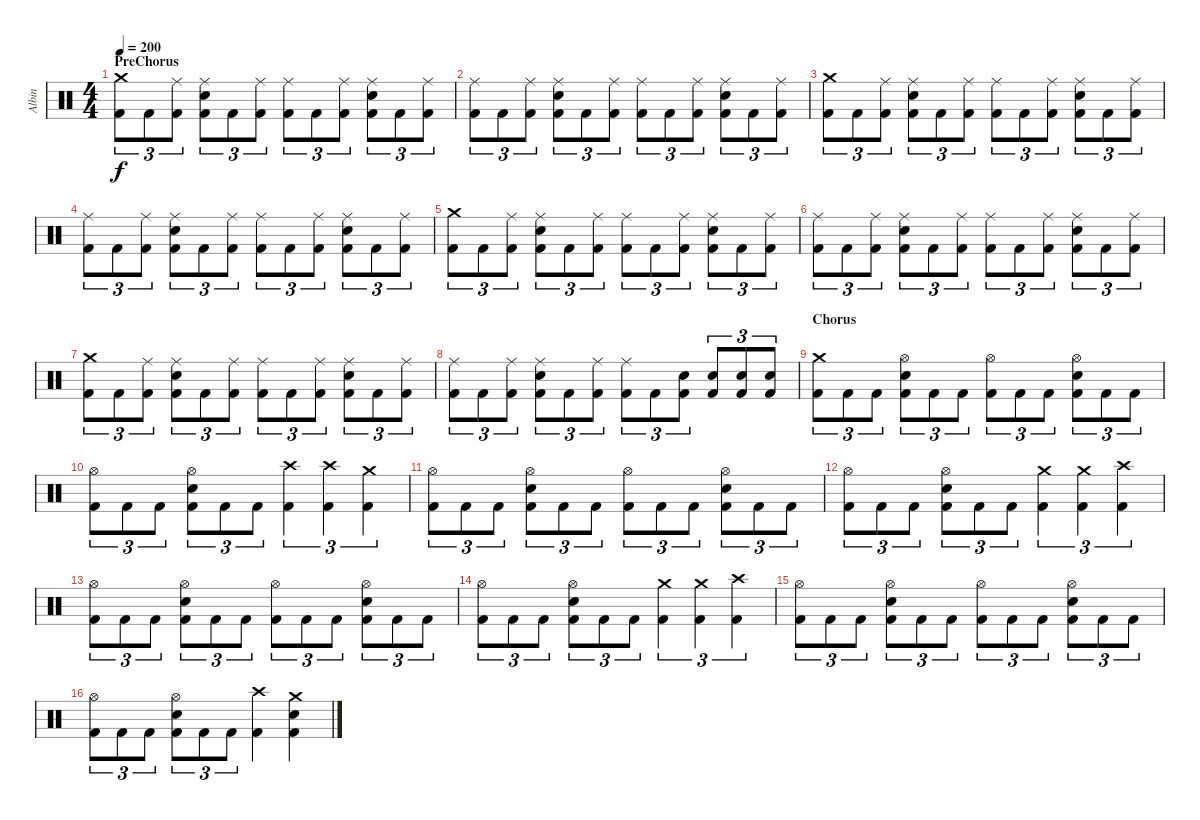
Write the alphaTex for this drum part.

\track ("Albin" "Albin") {instrument percussion}
\staff {score}
\articulation defaults
\ts (4 4)
\section ("" "PreChorus")
\tempo 200
\clef neutral
\ks c
("Crash medium (hit)" "Kick (hit) 2").8{tu (3 2) dy f} "Kick (hit) 2".8{tu (3 2)} ("Ride (middle)" "Kick (hit) 2").8{tu (3 2)} ("Ride (middle)" "Electric Snare (hit)" "Kick (hit) 2").8{tu (3 2)} "Kick (hit) 2".8{tu (3 2)} ("Ride (middle)" "Kick (hit) 2").8{tu (3 2)} ("Ride (middle)" "Kick (hit) 2").8{tu (3 2)} "Kick (hit) 2".8{tu (3 2)} ("Ride (middle)" "Kick (hit) 2").8{tu (3 2)} ("Ride (middle)" "Electric Snare (hit)" "Kick (hit) 2").8{tu (3 2)} "Kick (hit) 2".8{tu (3 2)} ("Ride (middle)" "Kick (hit) 2").8{tu (3 2)} |
("Ride (middle)" "Kick (hit) 2").8{tu (3 2)} "Kick (hit) 2".8{tu (3 2)} ("Ride (middle)" "Kick (hit) 2").8{tu (3 2)} ("Ride (middle)" "Electric Snare (hit)" "Kick (hit) 2").8{tu (3 2)} "Kick (hit) 2".8{tu (3 2)} ("Ride (middle)" "Kick (hit) 2").8{tu (3 2)} ("Ride (middle)" "Kick (hit) 2").8{tu (3 2)} "Kick (hit) 2".8{tu (3 2)} ("Ride (middle)" "Kick (hit) 2").8{tu (3 2)} ("Ride (middle)" "Electric Snare (hit)" "Kick (hit) 2").8{tu (3 2)} "Kick (hit) 2".8{tu (3 2)} ("Ride (middle)" "Kick (hit) 2").8{tu (3 2)} |
("Crash medium (hit)" "Kick (hit) 2").8{tu (3 2)} "Kick (hit) 2".8{tu (3 2)} ("Ride (middle)" "Kick (hit) 2").8{tu (3 2)} ("Ride (middle)" "Electric Snare (hit)" "Kick (hit) 2").8{tu (3 2)} "Kick (hit) 2".8{tu (3 2)} ("Ride (middle)" "Kick (hit) 2").8{tu (3 2)} ("Ride (middle)" "Kick (hit) 2").8{tu (3 2)} "Kick (hit) 2".8{tu (3 2)} ("Ride (middle)" "Kick (hit) 2").8{tu (3 2)} ("Ride (middle)" "Electric Snare (hit)" "Kick (hit) 2").8{tu (3 2)} "Kick (hit) 2".8{tu (3 2)} ("Ride (middle)" "Kick (hit) 2").8{tu (3 2)} |
("Ride (middle)" "Kick (hit) 2").8{tu (3 2)} "Kick (hit) 2".8{tu (3 2)} ("Ride (middle)" "Kick (hit) 2").8{tu (3 2)} ("Ride (middle)" "Electric Snare (hit)" "Kick (hit) 2").8{tu (3 2)} "Kick (hit) 2".8{tu (3 2)} ("Ride (middle)" "Kick (hit) 2").8{tu (3 2)} ("Ride (middle)" "Kick (hit) 2").8{tu (3 2)} "Kick (hit) 2".8{tu (3 2)} ("Ride (middle)" "Kick (hit) 2").8{tu (3 2)} ("Ride (middle)" "Electric Snare (hit)" "Kick (hit) 2").8{tu (3 2)} "Kick (hit) 2".8{tu (3 2)} ("Ride (middle)" "Kick (hit) 2").8{tu (3 2)} |
("Crash medium (hit)" "Kick (hit) 2").8{tu (3 2)} "Kick (hit) 2".8{tu (3 2)} ("Ride (middle)" "Kick (hit) 2").8{tu (3 2)} ("Ride (middle)" "Electric Snare (hit)" "Kick (hit) 2").8{tu (3 2)} "Kick (hit) 2".8{tu (3 2)} ("Ride (middle)" "Kick (hit) 2").8{tu (3 2)} ("Ride (middle)" "Kick (hit) 2").8{tu (3 2)} "Kick (hit) 2".8{tu (3 2)} ("Ride (middle)" "Kick (hit) 2").8{tu (3 2)} ("Ride (middle)" "Electric Snare (hit)" "Kick (hit) 2").8{tu (3 2)} "Kick (hit) 2".8{tu (3 2)} ("Ride (middle)" "Kick (hit) 2").8{tu (3 2)} |
("Ride (middle)" "Kick (hit) 2").8{tu (3 2)} "Kick (hit) 2".8{tu (3 2)} ("Ride (middle)" "Kick (hit) 2").8{tu (3 2)} ("Ride (middle)" "Electric Snare (hit)" "Kick (hit) 2").8{tu (3 2)} "Kick (hit) 2".8{tu (3 2)} ("Ride (middle)" "Kick (hit) 2").8{tu (3 2)} ("Ride (middle)" "Kick (hit) 2").8{tu (3 2)} "Kick (hit) 2".8{tu (3 2)} ("Ride (middle)" "Kick (hit) 2").8{tu (3 2)} ("Ride (middle)" "Electric Snare (hit)" "Kick (hit) 2").8{tu (3 2)} "Kick (hit) 2".8{tu (3 2)} ("Ride (middle)" "Kick (hit) 2").8{tu (3 2)} |
("Crash medium (hit)" "Kick (hit) 2").8{tu (3 2)} "Kick (hit) 2".8{tu (3 2)} ("Ride (middle)" "Kick (hit) 2").8{tu (3 2)} ("Ride (middle)" "Electric Snare (hit)" "Kick (hit) 2").8{tu (3 2)} "Kick (hit) 2".8{tu (3 2)} ("Ride (middle)" "Kick (hit) 2").8{tu (3 2)} ("Ride (middle)" "Kick (hit) 2").8{tu (3 2)} "Kick (hit) 2".8{tu (3 2)} ("Ride (middle)" "Kick (hit) 2").8{tu (3 2)} ("Ride (middle)" "Electric Snare (hit)" "Kick (hit) 2").8{tu (3 2)} "Kick (hit) 2".8{tu (3 2)} ("Ride (middle)" "Kick (hit) 2").8{tu (3 2)} |
("Ride (middle)" "Kick (hit) 2").8{tu (3 2)} "Kick (hit) 2".8{tu (3 2)} ("Ride (middle)" "Kick (hit) 2").8{tu (3 2)} ("Ride (middle)" "Electric Snare (hit)" "Kick (hit) 2").8{tu (3 2)} "Kick (hit) 2".8{tu (3 2)} ("Ride (middle)" "Kick (hit) 2").8{tu (3 2)} ("Ride (middle)" "Kick (hit) 2").8{tu (3 2)} "Kick (hit) 2".8{tu (3 2)} ("Electric Snare (hit)" "Kick (hit) 2").8{tu (3 2)} ("Electric Snare (hit)" "Kick (hit) 2").8{tu (3 2)} ("Electric Snare (hit)" "Kick (hit) 2").8{tu (3 2)} ("Electric Snare (hit)" "Kick (hit) 2").8{tu (3 2)} |
\section ("" "Chorus")
("Crash medium (hit)" "Kick (hit) 2").8{tu (3 2)} "Kick (hit) 2".8{tu (3 2)} "Kick (hit) 2".8{tu (3 2)} ("Hi-Hat (open)" "Electric Snare (hit)" "Kick (hit) 2").8{tu (3 2)} "Kick (hit) 2".8{tu (3 2)} "Kick (hit) 2".8{tu (3 2)} ("Hi-Hat (open)" "Kick (hit) 2").8{tu (3 2)} "Kick (hit) 2".8{tu (3 2)} "Kick (hit) 2".8{tu (3 2)} ("Hi-Hat (open)" "Electric Snare (hit)" "Kick (hit) 2").8{tu (3 2)} "Kick (hit) 2".8{tu (3 2)} "Kick (hit) 2".8{tu (3 2)} |
("Hi-Hat (open)" "Kick (hit) 2").8{tu (3 2)} "Kick (hit) 2".8{tu (3 2)} "Kick (hit) 2".8{tu (3 2)} ("Hi-Hat (open)" "Electric Snare (hit)" "Kick (hit) 2").8{tu (3 2)} "Kick (hit) 2".8{tu (3 2)} "Kick (hit) 2".8{tu (3 2)} ("Crash high (hit)" "Kick (hit) 2").4{tu (3 2)} ("Crash high (hit)" "Kick (hit) 2").4{tu (3 2)} ("Crash medium (hit)" "Kick (hit) 2").4{tu (3 2)} |
("Hi-Hat (open)" "Kick (hit) 2").8{tu (3 2)} "Kick (hit) 2".8{tu (3 2)} "Kick (hit) 2".8{tu (3 2)} ("Hi-Hat (open)" "Electric Snare (hit)" "Kick (hit) 2").8{tu (3 2)} "Kick (hit) 2".8{tu (3 2)} "Kick (hit) 2".8{tu (3 2)} ("Hi-Hat (open)" "Kick (hit) 2").8{tu (3 2)} "Kick (hit) 2".8{tu (3 2)} "Kick (hit) 2".8{tu (3 2)} ("Hi-Hat (open)" "Electric Snare (hit)" "Kick (hit) 2").8{tu (3 2)} "Kick (hit) 2".8{tu (3 2)} "Kick (hit) 2".8{tu (3 2)} |
("Hi-Hat (open)" "Kick (hit) 2").8{tu (3 2)} "Kick (hit) 2".8{tu (3 2)} "Kick (hit) 2".8{tu (3 2)} ("Hi-Hat (open)" "Electric Snare (hit)" "Kick (hit) 2").8{tu (3 2)} "Kick (hit) 2".8{tu (3 2)} "Kick (hit) 2".8{tu (3 2)} ("Crash medium (hit)" "Kick (hit) 2").4{tu (3 2)} ("Crash medium (hit)" "Kick (hit) 2").4{tu (3 2)} ("Crash high (hit)" "Kick (hit) 2").4{tu (3 2)} |
("Hi-Hat (open)" "Kick (hit) 2").8{tu (3 2)} "Kick (hit) 2".8{tu (3 2)} "Kick (hit) 2".8{tu (3 2)} ("Hi-Hat (open)" "Electric Snare (hit)" "Kick (hit) 2").8{tu (3 2)} "Kick (hit) 2".8{tu (3 2)} "Kick (hit) 2".8{tu (3 2)} ("Hi-Hat (open)" "Kick (hit) 2").8{tu (3 2)} "Kick (hit) 2".8{tu (3 2)} "Kick (hit) 2".8{tu (3 2)} ("Hi-Hat (open)" "Electric Snare (hit)" "Kick (hit) 2").8{tu (3 2)} "Kick (hit) 2".8{tu (3 2)} "Kick (hit) 2".8{tu (3 2)} |
("Hi-Hat (open)" "Kick (hit) 2").8{tu (3 2)} "Kick (hit) 2".8{tu (3 2)} "Kick (hit) 2".8{tu (3 2)} ("Hi-Hat (open)" "Electric Snare (hit)" "Kick (hit) 2").8{tu (3 2)} "Kick (hit) 2".8{tu (3 2)} "Kick (hit) 2".8{tu (3 2)} ("Crash medium (hit)" "Kick (hit) 2").4{tu (3 2)} ("Crash medium (hit)" "Kick (hit) 2").4{tu (3 2)} ("Crash high (hit)" "Kick (hit) 2").4{tu (3 2)} |
("Hi-Hat (open)" "Kick (hit) 2").8{tu (3 2)} "Kick (hit) 2".8{tu (3 2)} "Kick (hit) 2".8{tu (3 2)} ("Hi-Hat (open)" "Electric Snare (hit)" "Kick (hit) 2").8{tu (3 2)} "Kick (hit) 2".8{tu (3 2)} "Kick (hit) 2".8{tu (3 2)} ("Hi-Hat (open)" "Kick (hit) 2").8{tu (3 2)} "Kick (hit) 2".8{tu (3 2)} "Kick (hit) 2".8{tu (3 2)} ("Hi-Hat (open)" "Electric Snare (hit)" "Kick (hit) 2").8{tu (3 2)} "Kick (hit) 2".8{tu (3 2)} "Kick (hit) 2".8{tu (3 2)} |
("Hi-Hat (open)" "Kick (hit) 2").8{tu (3 2)} "Kick (hit) 2".8{tu (3 2)} "Kick (hit) 2".8{tu (3 2)} ("Hi-Hat (open)" "Electric Snare (hit)" "Kick (hit) 2").8{tu (3 2)} "Kick (hit) 2".8{tu (3 2)} "Kick (hit) 2".8{tu (3 2)} ("Crash high (hit)" "Kick (hit) 2").4 ("Crash medium (hit)" "Electric Snare (hit)" "Kick (hit) 2").4
